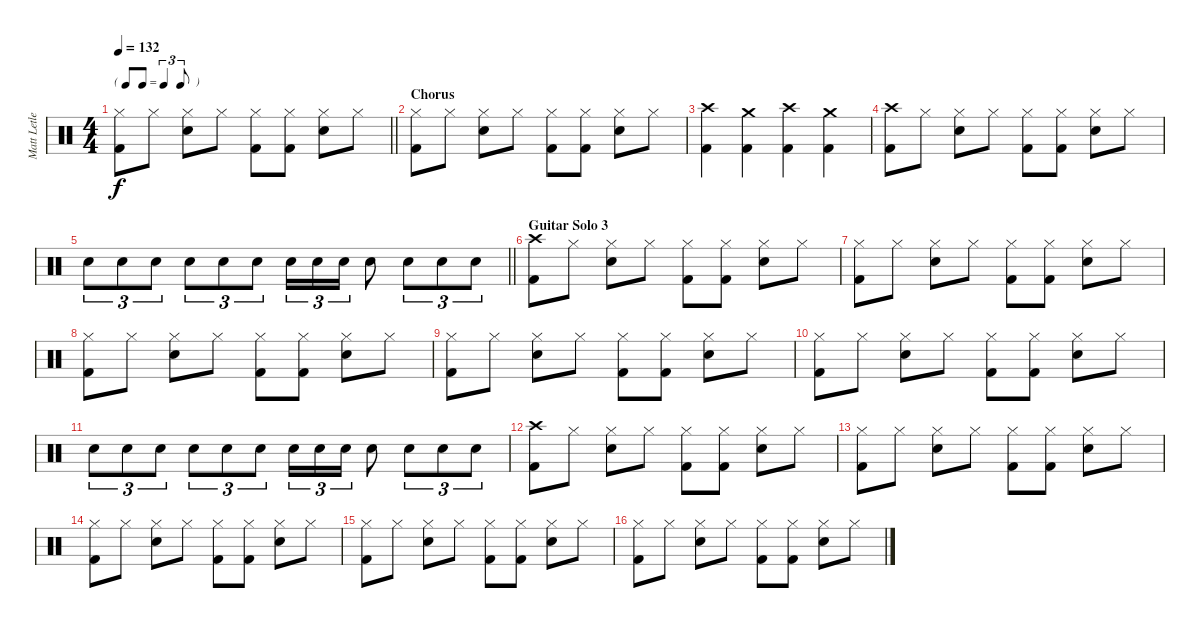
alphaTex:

\track ("Matt Letley" "Matt Letle") {instrument percussion}
\staff {score}
\articulation defaults
\ts (4 4)
\tf triplet8th
\tempo 132
\clef neutral
\barLineRight lightlight
\ks c
("Hi-Hat (closed)" "Kick (hit) 2").8{dy f} "Hi-Hat (closed)".8 ("Hi-Hat (closed)" "Electric Snare (hit)").8 "Hi-Hat (closed)".8 ("Hi-Hat (closed)" "Kick (hit) 2").8 ("Hi-Hat (closed)" "Kick (hit) 2").8 ("Hi-Hat (closed)" "Electric Snare (hit)").8 "Hi-Hat (closed)".8 |
\section ("" "Chorus")
("Hi-Hat (closed)" "Kick (hit) 2").8 "Hi-Hat (closed)".8 ("Hi-Hat (closed)" "Electric Snare (hit)").8 "Hi-Hat (closed)".8 ("Hi-Hat (closed)" "Kick (hit) 2").8 ("Hi-Hat (closed)" "Kick (hit) 2").8 ("Hi-Hat (closed)" "Electric Snare (hit)").8 "Hi-Hat (closed)".8 |
("Crash high (hit)" "Kick (hit) 2").4 ("Crash medium (hit)" "Kick (hit) 2").4 ("Crash high (hit)" "Kick (hit) 2").4 ("Crash medium (hit)" "Kick (hit) 2").4 |
("Crash high (hit)" "Kick (hit) 2").8 "Hi-Hat (closed)".8 ("Hi-Hat (closed)" "Electric Snare (hit)").8 "Hi-Hat (closed)".8 ("Hi-Hat (closed)" "Kick (hit) 2").8 ("Hi-Hat (closed)" "Kick (hit) 2").8 ("Hi-Hat (closed)" "Electric Snare (hit)").8 "Hi-Hat (closed)".8 |
\barLineRight lightlight "Electric Snare (hit)".8{tu (3 2)} "Electric Snare (hit)".8{tu (3 2)} "Electric Snare (hit)".8{tu (3 2)} "Electric Snare (hit)".8{tu (3 2)} "Electric Snare (hit)".8{tu (3 2)} "Electric Snare (hit)".8{tu (3 2)} "Electric Snare (hit)".16{tu (3 2)} "Electric Snare (hit)".16{tu (3 2)} "Electric Snare (hit)".16{tu (3 2)} "Electric Snare (hit)".8 "Electric Snare (hit)".8{tu (3 2)} "Electric Snare (hit)".8{tu (3 2)} "Electric Snare (hit)".8{tu (3 2)}
|
\section ("" "Guitar Solo 3")
("Crash high (hit)" "Kick (hit) 2").8 "Hi-Hat (closed)".8 ("Hi-Hat (closed)" "Electric Snare (hit)").8 "Hi-Hat (closed)".8 ("Hi-Hat (closed)" "Kick (hit) 2").8 ("Hi-Hat (closed)" "Kick (hit) 2").8 ("Hi-Hat (closed)" "Electric Snare (hit)").8 "Hi-Hat (closed)".8 |
("Hi-Hat (closed)" "Kick (hit) 2").8 "Hi-Hat (closed)".8 ("Hi-Hat (closed)" "Electric Snare (hit)").8 "Hi-Hat (closed)".8 ("Hi-Hat (closed)" "Kick (hit) 2").8 ("Hi-Hat (closed)" "Kick (hit) 2").8 ("Hi-Hat (closed)" "Electric Snare (hit)").8 "Hi-Hat (closed)".8 |
("Hi-Hat (closed)" "Kick (hit) 2").8 "Hi-Hat (closed)".8 ("Hi-Hat (closed)" "Electric Snare (hit)").8 "Hi-Hat (closed)".8 ("Hi-Hat (closed)" "Kick (hit) 2").8 ("Hi-Hat (closed)" "Kick (hit) 2").8 ("Hi-Hat (closed)" "Electric Snare (hit)").8 "Hi-Hat (closed)".8 |
("Hi-Hat (closed)" "Kick (hit) 2").8 "Hi-Hat (closed)".8 ("Hi-Hat (closed)" "Electric Snare (hit)").8 "Hi-Hat (closed)".8 ("Hi-Hat (closed)" "Kick (hit) 2").8 ("Hi-Hat (closed)" "Kick (hit) 2").8 ("Hi-Hat (closed)" "Electric Snare (hit)").8 "Hi-Hat (closed)".8 |
("Hi-Hat (closed)" "Kick (hit) 2").8 "Hi-Hat (closed)".8 ("Hi-Hat (closed)" "Electric Snare (hit)").8 "Hi-Hat (closed)".8 ("Hi-Hat (closed)" "Kick (hit) 2").8 ("Hi-Hat (closed)" "Kick (hit) 2").8 ("Hi-Hat (closed)" "Electric Snare (hit)").8 "Hi-Hat (closed)".8 |
"Electric Snare (hit)".8{tu (3 2)} "Electric Snare (hit)".8{tu (3 2)} "Electric Snare (hit)".8{tu (3 2)} "Electric Snare (hit)".8{tu (3 2)} "Electric Snare (hit)".8{tu (3 2)} "Electric Snare (hit)".8{tu (3 2)} "Electric Snare (hit)".16{tu (3 2)} "Electric Snare (hit)".16{tu (3 2)} "Electric Snare (hit)".16{tu (3 2)} "Electric Snare (hit)".8 "Electric Snare (hit)".8{tu (3 2)} "Electric Snare (hit)".8{tu (3 2)} "Electric Snare (hit)".8{tu (3 2)} |
("Crash high (hit)" "Kick (hit) 2").8 "Hi-Hat (closed)".8 ("Hi-Hat (closed)" "Electric Snare (hit)").8 "Hi-Hat (closed)".8 ("Hi-Hat (closed)" "Kick (hit) 2").8 ("Hi-Hat (closed)" "Kick (hit) 2").8 ("Hi-Hat (closed)" "Electric Snare (hit)").8 "Hi-Hat (closed)".8 |
("Hi-Hat (closed)" "Kick (hit) 2").8 "Hi-Hat (closed)".8 ("Hi-Hat (closed)" "Electric Snare (hit)").8 "Hi-Hat (closed)".8 ("Hi-Hat (closed)" "Kick (hit) 2").8 ("Hi-Hat (closed)" "Kick (hit) 2").8 ("Hi-Hat (closed)" "Electric Snare (hit)").8 "Hi-Hat (closed)".8 |
("Hi-Hat (closed)" "Kick (hit) 2").8 "Hi-Hat (closed)".8 ("Hi-Hat (closed)" "Electric Snare (hit)").8 "Hi-Hat (closed)".8 ("Hi-Hat (closed)" "Kick (hit) 2").8 ("Hi-Hat (closed)" "Kick (hit) 2").8 ("Hi-Hat (closed)" "Electric Snare (hit)").8 "Hi-Hat (closed)".8 |
("Hi-Hat (closed)" "Kick (hit) 2").8 "Hi-Hat (closed)".8 ("Hi-Hat (closed)" "Electric Snare (hit)").8 "Hi-Hat (closed)".8 ("Hi-Hat (closed)" "Kick (hit) 2").8 ("Hi-Hat (closed)" "Kick (hit) 2").8 ("Hi-Hat (closed)" "Electric Snare (hit)").8 "Hi-Hat (closed)".8 |
("Hi-Hat (closed)" "Kick (hit) 2").8 "Hi-Hat (closed)".8 ("Hi-Hat (closed)" "Electric Snare (hit)").8 "Hi-Hat (closed)".8 ("Hi-Hat (closed)" "Kick (hit) 2").8 ("Hi-Hat (closed)" "Kick (hit) 2").8 ("Hi-Hat (closed)" "Electric Snare (hit)").8 "Hi-Hat (closed)".8
